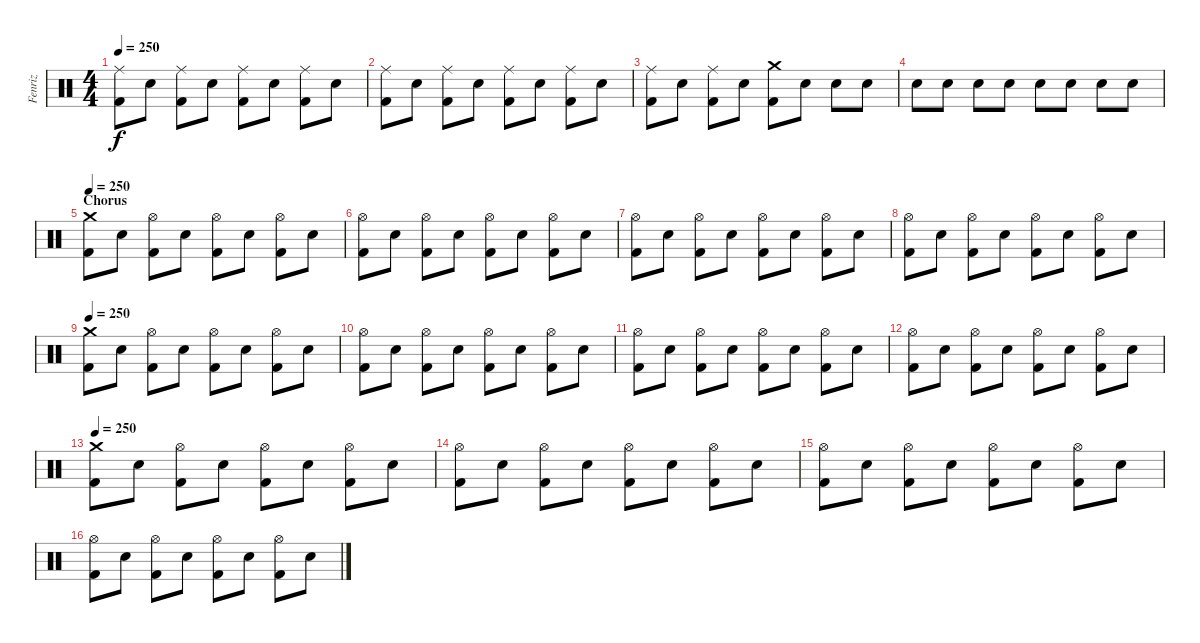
\track ("Fenriz" "Fenriz") {instrument percussion}
\staff {score}
\articulation defaults
\ts (4 4)
\tempo 250
\clef neutral
\ks c
("Ride (middle)" "Kick (hit) 2").8{dy f} "Electric Snare (hit)".8 ("Ride (middle)" "Kick (hit) 2").8 "Electric Snare (hit)".8 ("Ride (middle)" "Kick (hit) 2").8 "Electric Snare (hit)".8 ("Ride (middle)" "Kick (hit) 2").8 "Electric Snare (hit)".8 |
("Ride (middle)" "Kick (hit) 2").8 "Electric Snare (hit)".8 ("Ride (middle)" "Kick (hit) 2").8 "Electric Snare (hit)".8 ("Ride (middle)" "Kick (hit) 2").8 "Electric Snare (hit)".8 ("Ride (middle)" "Kick (hit) 2").8 "Electric Snare (hit)".8 |
("Ride (middle)" "Kick (hit) 2").8 "Electric Snare (hit)".8 ("Ride (middle)" "Kick (hit) 2").8 "Electric Snare (hit)".8 ("Crash medium (hit)" "Kick (hit) 2").8 "Electric Snare (hit)".8 "Electric Snare (hit)".8 "Electric Snare (hit)".8 |
"Electric Snare (hit)".8 "Electric Snare (hit)".8 "Electric Snare (hit)".8 "Electric Snare (hit)".8 "Electric Snare (hit)".8 "Electric Snare (hit)".8 "Electric Snare (hit)".8 "Electric Snare (hit)".8 |
\section ("" "Chorus")
\tempo 250
("Crash medium (hit)" "Kick (hit) 2").8 "Electric Snare (hit)".8 ("Hi-Hat (open)" "Kick (hit) 2").8 "Electric Snare (hit)".8 ("Hi-Hat (open)" "Kick (hit) 2").8 "Electric Snare (hit)".8 ("Hi-Hat (open)" "Kick (hit) 2").8 "Electric Snare (hit)".8 |
("Hi-Hat (open)" "Kick (hit) 2").8 "Electric Snare (hit)".8 ("Hi-Hat (open)" "Kick (hit) 2").8 "Electric Snare (hit)".8 ("Hi-Hat (open)" "Kick (hit) 2").8 "Electric Snare (hit)".8 ("Hi-Hat (open)" "Kick (hit) 2").8 "Electric Snare (hit)".8 |
("Hi-Hat (open)" "Kick (hit) 2").8 "Electric Snare (hit)".8 ("Hi-Hat (open)" "Kick (hit) 2").8 "Electric Snare (hit)".8 ("Hi-Hat (open)" "Kick (hit) 2").8 "Electric Snare (hit)".8 ("Hi-Hat (open)" "Kick (hit) 2").8 "Electric Snare (hit)".8 |
("Hi-Hat (open)" "Kick (hit) 2").8 "Electric Snare (hit)".8 ("Hi-Hat (open)" "Kick (hit) 2").8 "Electric Snare (hit)".8 ("Hi-Hat (open)" "Kick (hit) 2").8 "Electric Snare (hit)".8 ("Hi-Hat (open)" "Kick (hit) 2").8 "Electric Snare (hit)".8 |
\tempo 250
("Crash medium (hit)" "Kick (hit) 2").8 "Electric Snare (hit)".8 ("Hi-Hat (open)" "Kick (hit) 2").8 "Electric Snare (hit)".8 ("Hi-Hat (open)" "Kick (hit) 2").8 "Electric Snare (hit)".8 ("Hi-Hat (open)" "Kick (hit) 2").8 "Electric Snare (hit)".8 |
("Hi-Hat (open)" "Kick (hit) 2").8 "Electric Snare (hit)".8 ("Hi-Hat (open)" "Kick (hit) 2").8 "Electric Snare (hit)".8 ("Hi-Hat (open)" "Kick (hit) 2").8 "Electric Snare (hit)".8 ("Hi-Hat (open)" "Kick (hit) 2").8 "Electric Snare (hit)".8 |
("Hi-Hat (open)" "Kick (hit) 2").8 "Electric Snare (hit)".8 ("Hi-Hat (open)" "Kick (hit) 2").8 "Electric Snare (hit)".8 ("Hi-Hat (open)" "Kick (hit) 2").8 "Electric Snare (hit)".8 ("Hi-Hat (open)" "Kick (hit) 2").8 "Electric Snare (hit)".8 |
("Hi-Hat (open)" "Kick (hit) 2").8 "Electric Snare (hit)".8 ("Hi-Hat (open)" "Kick (hit) 2").8 "Electric Snare (hit)".8 ("Hi-Hat (open)" "Kick (hit) 2").8 "Electric Snare (hit)".8 ("Hi-Hat (open)" "Kick (hit) 2").8 "Electric Snare (hit)".8 |
\tempo 250
("Crash medium (hit)" "Kick (hit) 2").8 "Electric Snare (hit)".8 ("Hi-Hat (open)" "Kick (hit) 2").8 "Electric Snare (hit)".8 ("Hi-Hat (open)" "Kick (hit) 2").8 "Electric Snare (hit)".8 ("Hi-Hat (open)" "Kick (hit) 2").8 "Electric Snare (hit)".8 |
("Hi-Hat (open)" "Kick (hit) 2").8 "Electric Snare (hit)".8 ("Hi-Hat (open)" "Kick (hit) 2").8 "Electric Snare (hit)".8 ("Hi-Hat (open)" "Kick (hit) 2").8 "Electric Snare (hit)".8 ("Hi-Hat (open)" "Kick (hit) 2").8 "Electric Snare (hit)".8 |
("Hi-Hat (open)" "Kick (hit) 2").8 "Electric Snare (hit)".8 ("Hi-Hat (open)" "Kick (hit) 2").8 "Electric Snare (hit)".8 ("Hi-Hat (open)" "Kick (hit) 2").8 "Electric Snare (hit)".8 ("Hi-Hat (open)" "Kick (hit) 2").8 "Electric Snare (hit)".8 |
("Hi-Hat (open)" "Kick (hit) 2").8 "Electric Snare (hit)".8 ("Hi-Hat (open)" "Kick (hit) 2").8 "Electric Snare (hit)".8 ("Hi-Hat (open)" "Kick (hit) 2").8 "Electric Snare (hit)".8 ("Hi-Hat (open)" "Kick (hit) 2").8 "Electric Snare (hit)".8
